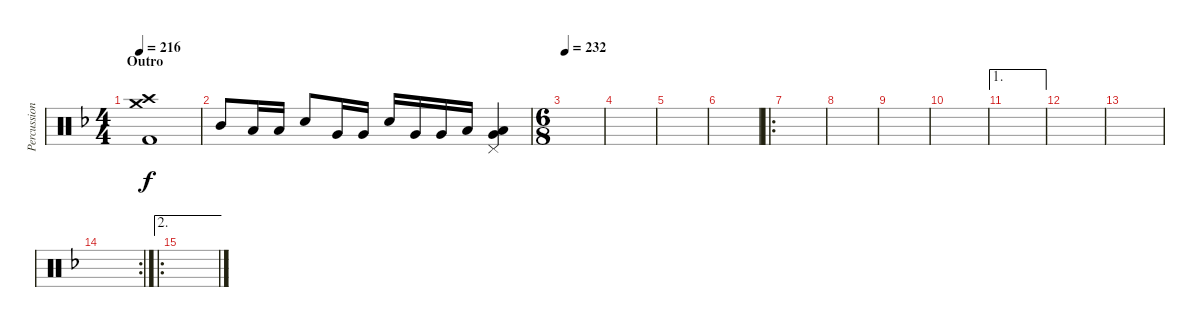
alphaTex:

\track ("Percussion" "Percussion") {instrument percussion}
\staff {score}
\articulation defaults
\ts (4 4)
\section ("" "Outro")
\tempo 216
\clef neutral
\ks f
("Crash medium (hit)" "Crash high (hit)" "Kick (hit) 2").1{dy f} |
"Mid Tom (hit)".8 "Low Tom (hit)".16 "Low Tom (hit)".16 "Electric Snare (hit)".8 "Very Low Tom (hit)".16 "Very Low Tom (hit)".16 "Electric Snare (hit)".16 "Very Low Tom (hit)".16 "Very Low Tom (hit)".16 "Low Floor Tom (hit)".16 ("Pedal Hi-Hat (hit)" "Very Low Tom (hit)" "Low Floor Tom (hit)").4 |
\ts (6 8)
\tempo 232
|
|
|
|
\ro
|
|
|
|
\ae 1
|
|
|
\rc 2
|
\ae 2
\ro
